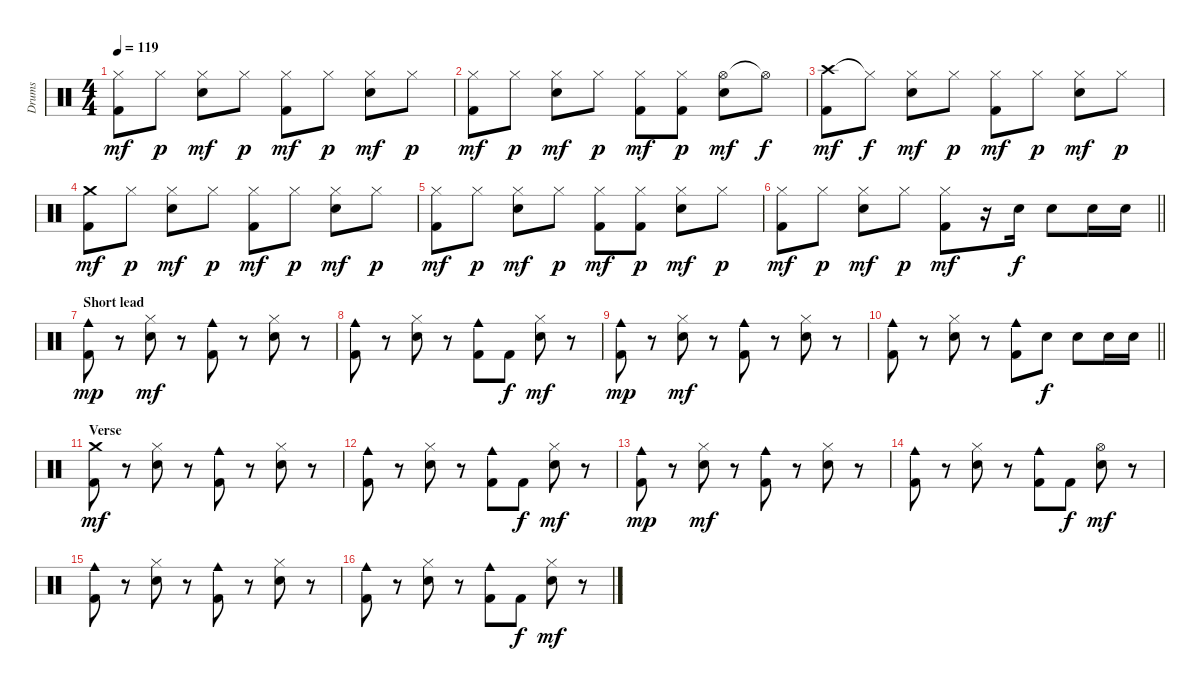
\track ("Drums" "Drums") {instrument percussion}
\staff {score}
\articulation defaults
\ts (4 4)
\tempo 119
\clef neutral
\ks c
("Hi-Hat (closed)" "Kick (hit) 2").8{dy mf} "Hi-Hat (closed)".8{dy p} ("Hi-Hat (closed)" "Electric Snare (hit)").8{dy mf} "Hi-Hat (closed)".8{dy p} ("Hi-Hat (closed)" "Kick (hit) 2").8{dy mf} "Hi-Hat (closed)".8{dy p} ("Hi-Hat (closed)" "Electric Snare (hit)").8{dy mf} "Hi-Hat (closed)".8{dy p} |
("Hi-Hat (closed)" "Kick (hit) 2").8{dy mf} "Hi-Hat (closed)".8{dy p} ("Hi-Hat (closed)" "Electric Snare (hit)").8{dy mf} "Hi-Hat (closed)".8{dy p} ("Hi-Hat (closed)" "Kick (hit) 2").8{dy mf} ("Hi-Hat (closed)" "Kick (hit) 2").8{dy p} ("Hi-Hat (open)" "Electric Snare (hit)").8{dy mf} "Hi-Hat (open)"{t}.8{dy f} |
("Crash high (hit)" "Kick (hit) 2").8{dy mf} "Hi-Hat (closed)"{t}.8{dy f} ("Hi-Hat (closed)" "Electric Snare (hit)").8{dy mf} "Hi-Hat (closed)".8{dy p} ("Hi-Hat (closed)" "Kick (hit) 2").8{dy mf} "Hi-Hat (closed)".8{dy p} ("Hi-Hat (closed)" "Electric Snare (hit)").8{dy mf} "Hi-Hat (closed)".8{dy p} |
("Crash medium (hit)" "Kick (hit) 2").8{dy mf} "Hi-Hat (closed)".8{dy p} ("Hi-Hat (closed)" "Electric Snare (hit)").8{dy mf} "Hi-Hat (closed)".8{dy p} ("Hi-Hat (closed)" "Kick (hit) 2").8{dy mf} "Hi-Hat (closed)".8{dy p} ("Hi-Hat (closed)" "Electric Snare (hit)").8{dy mf} "Hi-Hat (closed)".8{dy p} |
("Hi-Hat (closed)" "Kick (hit) 2").8{dy mf} "Hi-Hat (closed)".8{dy p} ("Hi-Hat (closed)" "Electric Snare (hit)").8{dy mf} "Hi-Hat (closed)".8{dy p} ("Hi-Hat (closed)" "Kick (hit) 2").8{dy mf} ("Hi-Hat (closed)" "Kick (hit) 2").8{dy p} ("Hi-Hat (closed)" "Electric Snare (hit)").8{dy mf} "Hi-Hat (closed)".8{dy p} |
\barLineRight lightlight
("Hi-Hat (closed)" "Kick (hit) 2").8{dy mf} "Hi-Hat (closed)".8{dy p} ("Hi-Hat (closed)" "Electric Snare (hit)").8{dy mf} "Hi-Hat (closed)".8{dy p} ("Hi-Hat (closed)" "Kick (hit) 2").8{dy mf} r.16 "Electric Snare (hit)".16{dy f} "Electric Snare (hit)".8 "Electric Snare (hit)".16 "Electric Snare (hit)".16 |
\section ("" "Short lead")
("Cowbell medium (hit)" "Kick (hit) 2").8{dy mp} r.8 ("Hi-Hat (closed)" "Electric Snare (hit)").8{dy mf} r.8 ("Cowbell medium (hit)" "Kick (hit) 2").8 r.8 ("Hi-Hat (closed)" "Electric Snare (hit)").8 r.8 |
("Cowbell medium (hit)" "Kick (hit) 2").8 r.8 ("Hi-Hat (closed)" "Electric Snare (hit)").8 r.8 ("Cowbell medium (hit)" "Kick (hit) 2").8 "Kick (hit) 2".8{dy f} ("Hi-Hat (closed)" "Electric Snare (hit)").8{dy mf} r.8 |
("Cowbell medium (hit)" "Kick (hit) 2").8{dy mp} r.8 ("Hi-Hat (closed)" "Electric Snare (hit)").8{dy mf} r.8 ("Cowbell medium (hit)" "Kick (hit) 2").8 r.8 ("Hi-Hat (closed)" "Electric Snare (hit)").8 r.8 |
\barLineRight lightlight
("Cowbell medium (hit)" "Kick (hit) 2").8 r.8 ("Hi-Hat (closed)" "Electric Snare (hit)").8 r.8 ("Cowbell medium (hit)" "Kick (hit) 2").8 "Electric Snare (hit)".8{dy f} "Electric Snare (hit)".8 "Electric Snare (hit)".16 "Electric Snare (hit)".16 |
\section ("" "Verse")
("Crash medium (hit)" "Kick (hit) 2").8{dy mf} r.8 ("Hi-Hat (closed)" "Electric Snare (hit)").8 r.8 ("Cowbell medium (hit)" "Kick (hit) 2").8 r.8 ("Hi-Hat (closed)" "Electric Snare (hit)").8 r.8 |
("Cowbell medium (hit)" "Kick (hit) 2").8 r.8 ("Hi-Hat (closed)" "Electric Snare (hit)").8 r.8 ("Cowbell medium (hit)" "Kick (hit) 2").8 "Kick (hit) 2".8{dy f} ("Hi-Hat (closed)" "Electric Snare (hit)").8{dy mf} r.8 |
("Cowbell medium (hit)" "Kick (hit) 2").8{dy mp} r.8 ("Hi-Hat (closed)" "Electric Snare (hit)").8{dy mf} r.8 ("Cowbell medium (hit)" "Kick (hit) 2").8 r.8 ("Hi-Hat (closed)" "Electric Snare (hit)").8 r.8 |
("Cowbell medium (hit)" "Kick (hit) 2").8 r.8 ("Hi-Hat (closed)" "Electric Snare (hit)").8 r.8 ("Cowbell medium (hit)" "Kick (hit) 2").8 "Kick (hit) 2".8{dy f} ("Hi-Hat (open)" "Electric Snare (hit)").8{dy mf} r.8 |
("Cowbell medium (hit)" "Kick (hit) 2").8 r.8 ("Hi-Hat (closed)" "Electric Snare (hit)").8 r.8 ("Cowbell medium (hit)" "Kick (hit) 2").8 r.8 ("Hi-Hat (closed)" "Electric Snare (hit)").8 r.8 |
("Cowbell medium (hit)" "Kick (hit) 2").8 r.8 ("Hi-Hat (closed)" "Electric Snare (hit)").8 r.8 ("Cowbell medium (hit)" "Kick (hit) 2").8 "Kick (hit) 2".8{dy f} ("Hi-Hat (closed)" "Electric Snare (hit)").8{dy mf} r.8
